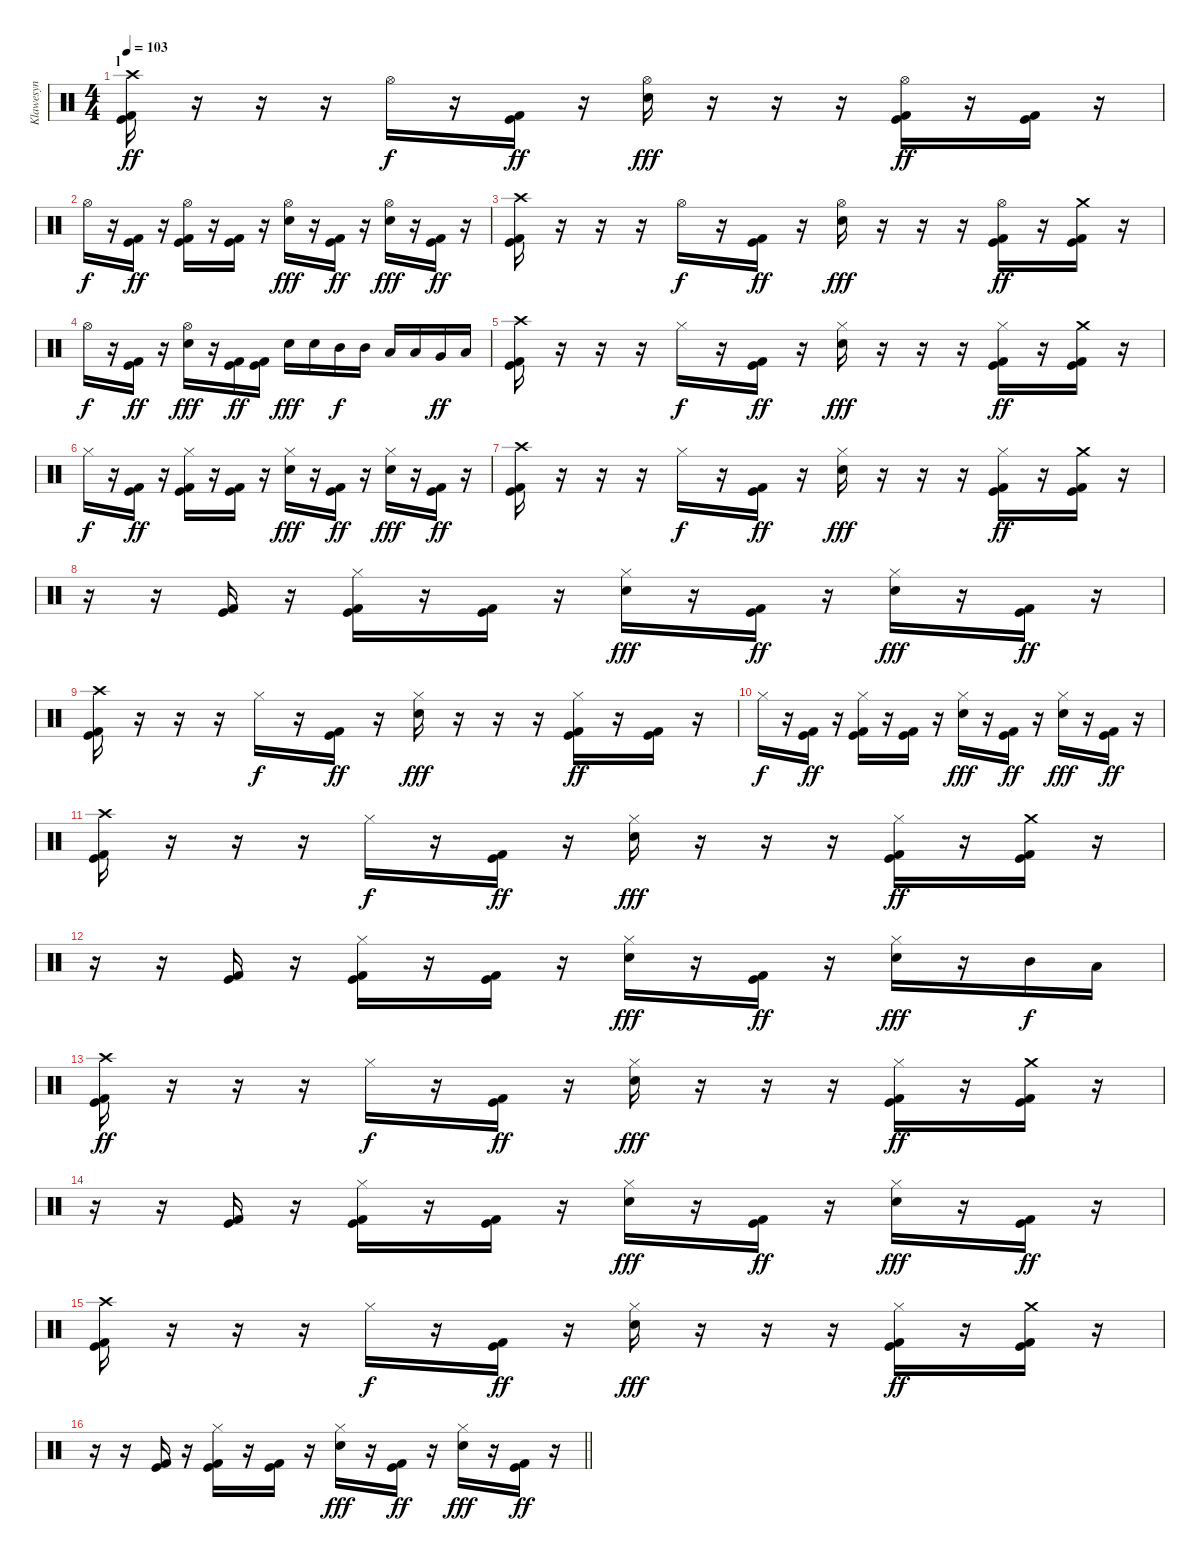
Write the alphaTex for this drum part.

\track ("Klawesyn" "Klawesyn") {instrument percussion}
\staff {score}
\articulation defaults
\ts (4 4)
\section ("" "l")
\tempo 103
\clef neutral
\ks c
("Crash high (hit)" "Kick (hit)" "Kick (hit) 2").16{dy ff} r.16 r.16 r.16 "Hi-Hat (open)".16{dy f} r.16 ("Kick (hit)" "Kick (hit) 2").16{dy ff} r.16 ("Hi-Hat (open)" "Electric Snare (hit)").16{dy fff} r.16 r.16 r.16 ("Hi-Hat (open)" "Kick (hit)" "Kick (hit) 2").16{dy ff} r.16 ("Kick (hit)" "Kick (hit) 2").16 r.16 |
"Hi-Hat (open)".16{dy f} r.16 ("Kick (hit)" "Kick (hit) 2").16{dy ff} r.16 ("Hi-Hat (open)" "Kick (hit)" "Kick (hit) 2").16 r.16 ("Kick (hit)" "Kick (hit) 2").16 r.16 ("Hi-Hat (open)" "Electric Snare (hit)").16{dy fff} r.16 ("Kick (hit)" "Kick (hit) 2").16{dy ff} r.16 ("Hi-Hat (open)" "Electric Snare (hit)").16{dy fff} r.16 ("Kick (hit)" "Kick (hit) 2").16{dy ff} r.16 |
("Crash high (hit)" "Kick (hit)" "Kick (hit) 2").16 r.16 r.16 r.16 "Hi-Hat (open)".16{dy f} r.16 ("Kick (hit)" "Kick (hit) 2").16{dy ff} r.16 ("Hi-Hat (open)" "Electric Snare (hit)").16{dy fff} r.16 r.16 r.16 ("Hi-Hat (open)" "Kick (hit)" "Kick (hit) 2").16{dy ff} r.16 ("Crash medium (hit)" "Kick (hit)" "Kick (hit) 2").16 r.16 |
"Hi-Hat (open)".16{dy f} r.16 ("Kick (hit)" "Kick (hit) 2").16{dy ff} r.16 ("Hi-Hat (open)" "Electric Snare (hit)").16{dy fff} r.16 ("Kick (hit)" "Kick (hit) 2").16{dy ff} ("Kick (hit)" "Kick (hit) 2").16 "Electric Snare (hit)".16{dy fff} "Electric Snare (hit)".16 "Mid Tom (hit)".16{dy f} "Mid Tom (hit)".16 "Low Tom (hit)".16 "Low Tom (hit)".16 "Very Low Tom (hit)".16{dy ff} "Low Floor Tom (hit)".16 |
("Crash high (hit)" "Kick (hit)" "Kick (hit) 2").16 r.16 r.16 r.16 "Hi-Hat (closed)".16{dy f} r.16 ("Kick (hit)" "Kick (hit) 2").16{dy ff} r.16 ("Hi-Hat (closed)" "Electric Snare (hit)").16{dy fff} r.16 r.16 r.16 ("Hi-Hat (closed)" "Kick (hit)" "Kick (hit) 2").16{dy ff} r.16 ("Crash medium (hit)" "Kick (hit)" "Kick (hit) 2").16 r.16 |
"Hi-Hat (closed)".16{dy f} r.16 ("Kick (hit)" "Kick (hit) 2").16{dy ff} r.16 ("Hi-Hat (closed)" "Kick (hit)" "Kick (hit) 2").16 r.16 ("Kick (hit)" "Kick (hit) 2").16 r.16 ("Hi-Hat (closed)" "Electric Snare (hit)").16{dy fff} r.16 ("Kick (hit)" "Kick (hit) 2").16{dy ff} r.16 ("Hi-Hat (closed)" "Electric Snare (hit)").16{dy fff} r.16 ("Kick (hit)" "Kick (hit) 2").16{dy ff} r.16 |
("Crash high (hit)" "Kick (hit)" "Kick (hit) 2").16 r.16 r.16 r.16 "Hi-Hat (closed)".16{dy f} r.16 ("Kick (hit)" "Kick (hit) 2").16{dy ff} r.16 ("Hi-Hat (closed)" "Electric Snare (hit)").16{dy fff} r.16 r.16 r.16 ("Hi-Hat (closed)" "Kick (hit)" "Kick (hit) 2").16{dy ff} r.16 ("Crash medium (hit)" "Kick (hit)" "Kick (hit) 2").16 r.16 |
r.16 r.16 ("Kick (hit)" "Kick (hit) 2").16 r.16 ("Hi-Hat (closed)" "Kick (hit)" "Kick (hit) 2").16 r.16 ("Kick (hit)" "Kick (hit) 2").16 r.16 ("Hi-Hat (closed)" "Electric Snare (hit)").16{dy fff} r.16 ("Kick (hit)" "Kick (hit) 2").16{dy ff} r.16 ("Hi-Hat (closed)" "Electric Snare (hit)").16{dy fff} r.16 ("Kick (hit)" "Kick (hit) 2").16{dy ff} r.16 |
("Crash high (hit)" "Kick (hit)" "Kick (hit) 2").16 r.16 r.16 r.16 "Hi-Hat (closed)".16{dy f} r.16 ("Kick (hit)" "Kick (hit) 2").16{dy ff} r.16 ("Hi-Hat (closed)" "Electric Snare (hit)").16{dy fff} r.16 r.16 r.16 ("Hi-Hat (closed)" "Kick (hit)" "Kick (hit) 2").16{dy ff} r.16 ("Kick (hit)" "Kick (hit) 2").16 r.16 |
"Hi-Hat (closed)".16{dy f} r.16 ("Kick (hit)" "Kick (hit) 2").16{dy ff} r.16 ("Hi-Hat (closed)" "Kick (hit)" "Kick (hit) 2").16 r.16 ("Kick (hit)" "Kick (hit) 2").16 r.16 ("Hi-Hat (closed)" "Electric Snare (hit)").16{dy fff} r.16 ("Kick (hit)" "Kick (hit) 2").16{dy ff} r.16 ("Hi-Hat (closed)" "Electric Snare (hit)").16{dy fff} r.16 ("Kick (hit)" "Kick (hit) 2").16{dy ff} r.16 |
("Crash high (hit)" "Kick (hit)" "Kick (hit) 2").16 r.16 r.16 r.16 "Hi-Hat (closed)".16{dy f} r.16 ("Kick (hit)" "Kick (hit) 2").16{dy ff} r.16 ("Hi-Hat (closed)" "Electric Snare (hit)").16{dy fff} r.16 r.16 r.16 ("Hi-Hat (closed)" "Kick (hit)" "Kick (hit) 2").16{dy ff} r.16 ("Crash medium (hit)" "Kick (hit)" "Kick (hit) 2").16 r.16 |
r.16 r.16 ("Kick (hit)" "Kick (hit) 2").16 r.16 ("Hi-Hat (closed)" "Kick (hit)" "Kick (hit) 2").16 r.16 ("Kick (hit)" "Kick (hit) 2").16 r.16 ("Hi-Hat (closed)" "Electric Snare (hit)").16{dy fff} r.16 ("Kick (hit)" "Kick (hit) 2").16{dy ff} r.16 ("Hi-Hat (closed)" "Electric Snare (hit)").16{dy fff} r.16 "Mid Tom (hit)".16{dy f} "Low Tom (hit)".16 |
("Crash high (hit)" "Kick (hit)" "Kick (hit) 2").16{dy ff} r.16 r.16 r.16 "Hi-Hat (closed)".16{dy f} r.16 ("Kick (hit)" "Kick (hit) 2").16{dy ff} r.16 ("Hi-Hat (closed)" "Electric Snare (hit)").16{dy fff} r.16 r.16 r.16 ("Hi-Hat (closed)" "Kick (hit)" "Kick (hit) 2").16{dy ff} r.16 ("Crash medium (hit)" "Kick (hit)" "Kick (hit) 2").16 r.16 |
r.16 r.16 ("Kick (hit)" "Kick (hit) 2").16 r.16 ("Hi-Hat (closed)" "Kick (hit)" "Kick (hit) 2").16 r.16 ("Kick (hit)" "Kick (hit) 2").16 r.16 ("Hi-Hat (closed)" "Electric Snare (hit)").16{dy fff} r.16 ("Kick (hit)" "Kick (hit) 2").16{dy ff} r.16 ("Hi-Hat (closed)" "Electric Snare (hit)").16{dy fff} r.16 ("Kick (hit)" "Kick (hit) 2").16{dy ff} r.16 |
("Crash high (hit)" "Kick (hit)" "Kick (hit) 2").16 r.16 r.16 r.16 "Hi-Hat (closed)".16{dy f} r.16 ("Kick (hit)" "Kick (hit) 2").16{dy ff} r.16 ("Hi-Hat (closed)" "Electric Snare (hit)").16{dy fff} r.16 r.16 r.16 ("Hi-Hat (closed)" "Kick (hit)" "Kick (hit) 2").16{dy ff} r.16 ("Crash medium (hit)" "Kick (hit)" "Kick (hit) 2").16 r.16 |
\barLineRight lightlight
r.16 r.16 ("Kick (hit)" "Kick (hit) 2").16 r.16 ("Hi-Hat (closed)" "Kick (hit)" "Kick (hit) 2").16 r.16 ("Kick (hit)" "Kick (hit) 2").16 r.16 ("Hi-Hat (closed)" "Electric Snare (hit)").16{dy fff} r.16 ("Kick (hit)" "Kick (hit) 2").16{dy ff} r.16 ("Hi-Hat (closed)" "Electric Snare (hit)").16{dy fff} r.16 ("Kick (hit)" "Kick (hit) 2").16{dy ff} r.16
